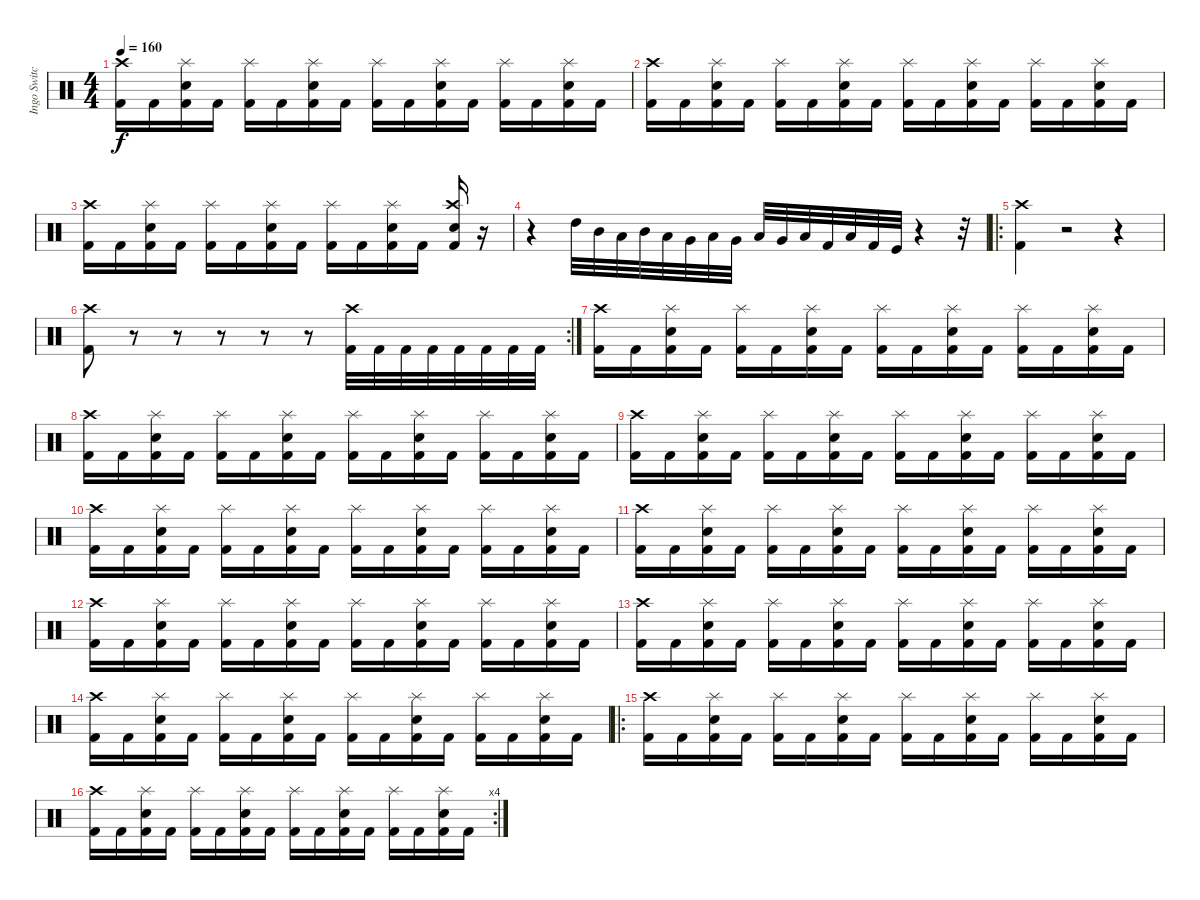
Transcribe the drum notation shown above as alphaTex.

\track ("Ingo Switchenberg" "Ingo Switc") {instrument percussion}
\staff {score}
\articulation defaults
\ts (4 4)
\tempo 160
\clef neutral
\ks c
("Kick (hit) 2" "Crash high (hit)").16{dy f} "Kick (hit) 2".16 ("Splash (hit)" "Kick (hit) 2" "Snare (hit) 2").16 "Kick (hit) 2".16 ("Splash (hit)" "Kick (hit) 2").16 "Kick (hit) 2".16 ("Splash (hit)" "Kick (hit) 2" "Snare (hit) 2").16 "Kick (hit) 2".16 ("Splash (hit)" "Kick (hit) 2").16 "Kick (hit) 2".16 ("Splash (hit)" "Kick (hit) 2" "Snare (hit) 2").16 "Kick (hit) 2".16 ("Splash (hit)" "Kick (hit) 2").16 "Kick (hit) 2".16 ("Splash (hit)" "Kick (hit) 2" "Snare (hit) 2").16 "Kick (hit) 2".16 |
("Kick (hit) 2" "Crash high (hit)").16 "Kick (hit) 2".16 ("Splash (hit)" "Kick (hit) 2" "Snare (hit) 2").16 "Kick (hit) 2".16 ("Splash (hit)" "Kick (hit) 2").16 "Kick (hit) 2".16 ("Splash (hit)" "Kick (hit) 2" "Snare (hit) 2").16 "Kick (hit) 2".16 ("Splash (hit)" "Kick (hit) 2").16 "Kick (hit) 2".16 ("Splash (hit)" "Kick (hit) 2" "Snare (hit) 2").16 "Kick (hit) 2".16 ("Splash (hit)" "Kick (hit) 2").16 "Kick (hit) 2".16 ("Splash (hit)" "Kick (hit) 2" "Snare (hit) 2").16 "Kick (hit) 2".16 |
("Kick (hit) 2" "Crash high (hit)").16 "Kick (hit) 2".16 ("Splash (hit)" "Kick (hit) 2" "Snare (hit) 2").16 "Kick (hit) 2".16 ("Splash (hit)" "Kick (hit) 2").16 "Kick (hit) 2".16 ("Splash (hit)" "Kick (hit) 2" "Snare (hit) 2").16 "Kick (hit) 2".16 ("Splash (hit)" "Kick (hit) 2").16 "Kick (hit) 2".16 ("Splash (hit)" "Kick (hit) 2" "Snare (hit) 2").16 "Kick (hit) 2".16 ("Kick (hit) 2" "Snare (hit) 2" "Crash high (hit)").16 r.16 |
r.4 "High Tom (hit)".32 "Mid Tom (hit)".32 "Low Tom (hit)".32 "Mid Tom (hit)".32 "Low Tom (hit)".32 "Very Low Tom (hit)".32 "Low Tom (hit)".32 "Very Low Tom (hit)".32 "Low Floor Tom (hit)".32 "Very Low Tom (hit)".32 "Low Floor Tom (hit)".32 "Kick (hit) 2".32 "Low Floor Tom (hit)".32 "Kick (hit) 2".32 "Kick (hit)".32 r.4 r.32 |
\ro
("Kick (hit) 2" "Crash high (hit)").4 r.2 r.4 |
\rc 2
("Kick (hit) 2" "Crash high (hit)").8 r.8 r.8 r.8 r.8 r.8 ("Kick (hit) 2" "Crash high (hit)").32 "Kick (hit) 2".32 "Kick (hit) 2".32 "Kick (hit) 2".32 "Kick (hit) 2".32 "Kick (hit) 2".32 "Kick (hit) 2".32 "Kick (hit) 2".32 |
("Kick (hit) 2" "Crash high (hit)").16 "Kick (hit) 2".16 ("Splash (hit)" "Kick (hit) 2" "Snare (hit) 2").16 "Kick (hit) 2".16 ("Splash (hit)" "Kick (hit) 2").16 "Kick (hit) 2".16 ("Splash (hit)" "Kick (hit) 2" "Snare (hit) 2").16 "Kick (hit) 2".16 ("Splash (hit)" "Kick (hit) 2").16 "Kick (hit) 2".16 ("Splash (hit)" "Kick (hit) 2" "Snare (hit) 2").16 "Kick (hit) 2".16 ("Splash (hit)" "Kick (hit) 2").16 "Kick (hit) 2".16 ("Splash (hit)" "Kick (hit) 2" "Snare (hit) 2").16 "Kick (hit) 2".16 |
("Kick (hit) 2" "Crash high (hit)").16 "Kick (hit) 2".16 ("Splash (hit)" "Kick (hit) 2" "Snare (hit) 2").16 "Kick (hit) 2".16 ("Splash (hit)" "Kick (hit) 2").16 "Kick (hit) 2".16 ("Splash (hit)" "Kick (hit) 2" "Snare (hit) 2").16 "Kick (hit) 2".16 ("Splash (hit)" "Kick (hit) 2").16 "Kick (hit) 2".16 ("Splash (hit)" "Kick (hit) 2" "Snare (hit) 2").16 "Kick (hit) 2".16 ("Splash (hit)" "Kick (hit) 2").16 "Kick (hit) 2".16 ("Splash (hit)" "Kick (hit) 2" "Snare (hit) 2").16 "Kick (hit) 2".16 |
("Kick (hit) 2" "Crash high (hit)").16 "Kick (hit) 2".16 ("Splash (hit)" "Kick (hit) 2" "Snare (hit) 2").16 "Kick (hit) 2".16 ("Splash (hit)" "Kick (hit) 2").16 "Kick (hit) 2".16 ("Splash (hit)" "Kick (hit) 2" "Snare (hit) 2").16 "Kick (hit) 2".16 ("Splash (hit)" "Kick (hit) 2").16 "Kick (hit) 2".16 ("Splash (hit)" "Kick (hit) 2" "Snare (hit) 2").16 "Kick (hit) 2".16 ("Splash (hit)" "Kick (hit) 2").16 "Kick (hit) 2".16 ("Splash (hit)" "Kick (hit) 2" "Snare (hit) 2").16 "Kick (hit) 2".16 |
("Kick (hit) 2" "Crash high (hit)").16 "Kick (hit) 2".16 ("Splash (hit)" "Kick (hit) 2" "Snare (hit) 2").16 "Kick (hit) 2".16 ("Splash (hit)" "Kick (hit) 2").16 "Kick (hit) 2".16 ("Splash (hit)" "Kick (hit) 2" "Snare (hit) 2").16 "Kick (hit) 2".16 ("Splash (hit)" "Kick (hit) 2").16 "Kick (hit) 2".16 ("Splash (hit)" "Kick (hit) 2" "Snare (hit) 2").16 "Kick (hit) 2".16 ("Splash (hit)" "Kick (hit) 2").16 "Kick (hit) 2".16 ("Splash (hit)" "Kick (hit) 2" "Snare (hit) 2").16 "Kick (hit) 2".16 |
("Kick (hit) 2" "Crash high (hit)").16 "Kick (hit) 2".16 ("Splash (hit)" "Kick (hit) 2" "Snare (hit) 2").16 "Kick (hit) 2".16 ("Splash (hit)" "Kick (hit) 2").16 "Kick (hit) 2".16 ("Splash (hit)" "Kick (hit) 2" "Snare (hit) 2").16 "Kick (hit) 2".16 ("Splash (hit)" "Kick (hit) 2").16 "Kick (hit) 2".16 ("Splash (hit)" "Kick (hit) 2" "Snare (hit) 2").16 "Kick (hit) 2".16 ("Splash (hit)" "Kick (hit) 2").16 "Kick (hit) 2".16 ("Splash (hit)" "Kick (hit) 2" "Snare (hit) 2").16 "Kick (hit) 2".16 |
("Kick (hit) 2" "Crash high (hit)").16 "Kick (hit) 2".16 ("Splash (hit)" "Kick (hit) 2" "Snare (hit) 2").16 "Kick (hit) 2".16 ("Splash (hit)" "Kick (hit) 2").16 "Kick (hit) 2".16 ("Splash (hit)" "Kick (hit) 2" "Snare (hit) 2").16 "Kick (hit) 2".16 ("Splash (hit)" "Kick (hit) 2").16 "Kick (hit) 2".16 ("Splash (hit)" "Kick (hit) 2" "Snare (hit) 2").16 "Kick (hit) 2".16 ("Splash (hit)" "Kick (hit) 2").16 "Kick (hit) 2".16 ("Splash (hit)" "Kick (hit) 2" "Snare (hit) 2").16 "Kick (hit) 2".16 |
("Kick (hit) 2" "Crash high (hit)").16 "Kick (hit) 2".16 ("Splash (hit)" "Kick (hit) 2" "Snare (hit) 2").16 "Kick (hit) 2".16 ("Splash (hit)" "Kick (hit) 2").16 "Kick (hit) 2".16 ("Splash (hit)" "Kick (hit) 2" "Snare (hit) 2").16 "Kick (hit) 2".16 ("Splash (hit)" "Kick (hit) 2").16 "Kick (hit) 2".16 ("Splash (hit)" "Kick (hit) 2" "Snare (hit) 2").16 "Kick (hit) 2".16 ("Splash (hit)" "Kick (hit) 2").16 "Kick (hit) 2".16 ("Splash (hit)" "Kick (hit) 2" "Snare (hit) 2").16 "Kick (hit) 2".16 |
("Kick (hit) 2" "Crash high (hit)").16 "Kick (hit) 2".16 ("Splash (hit)" "Kick (hit) 2" "Snare (hit) 2").16 "Kick (hit) 2".16 ("Splash (hit)" "Kick (hit) 2").16 "Kick (hit) 2".16 ("Splash (hit)" "Kick (hit) 2" "Snare (hit) 2").16 "Kick (hit) 2".16 ("Splash (hit)" "Kick (hit) 2").16 "Kick (hit) 2".16 ("Splash (hit)" "Kick (hit) 2" "Snare (hit) 2").16 "Kick (hit) 2".16 ("Splash (hit)" "Kick (hit) 2").16 "Kick (hit) 2".16 ("Splash (hit)" "Kick (hit) 2" "Snare (hit) 2").16 "Kick (hit) 2".16 |
\ro
("Kick (hit) 2" "Crash high (hit)").16 "Kick (hit) 2".16 ("Splash (hit)" "Kick (hit) 2" "Snare (hit) 2").16 "Kick (hit) 2".16 ("Splash (hit)" "Kick (hit) 2").16 "Kick (hit) 2".16 ("Splash (hit)" "Kick (hit) 2" "Snare (hit) 2").16 "Kick (hit) 2".16 ("Splash (hit)" "Kick (hit) 2").16 "Kick (hit) 2".16 ("Splash (hit)" "Kick (hit) 2" "Snare (hit) 2").16 "Kick (hit) 2".16 ("Splash (hit)" "Kick (hit) 2").16 "Kick (hit) 2".16 ("Splash (hit)" "Kick (hit) 2" "Snare (hit) 2").16 "Kick (hit) 2".16 |
\rc 4
("Kick (hit) 2" "Crash high (hit)").16 "Kick (hit) 2".16 ("Splash (hit)" "Kick (hit) 2" "Snare (hit) 2").16 "Kick (hit) 2".16 ("Splash (hit)" "Kick (hit) 2").16 "Kick (hit) 2".16 ("Splash (hit)" "Kick (hit) 2" "Snare (hit) 2").16 "Kick (hit) 2".16 ("Splash (hit)" "Kick (hit) 2").16 "Kick (hit) 2".16 ("Splash (hit)" "Kick (hit) 2" "Snare (hit) 2").16 "Kick (hit) 2".16 ("Splash (hit)" "Kick (hit) 2").16 "Kick (hit) 2".16 ("Splash (hit)" "Kick (hit) 2" "Snare (hit) 2").16 "Kick (hit) 2".16
